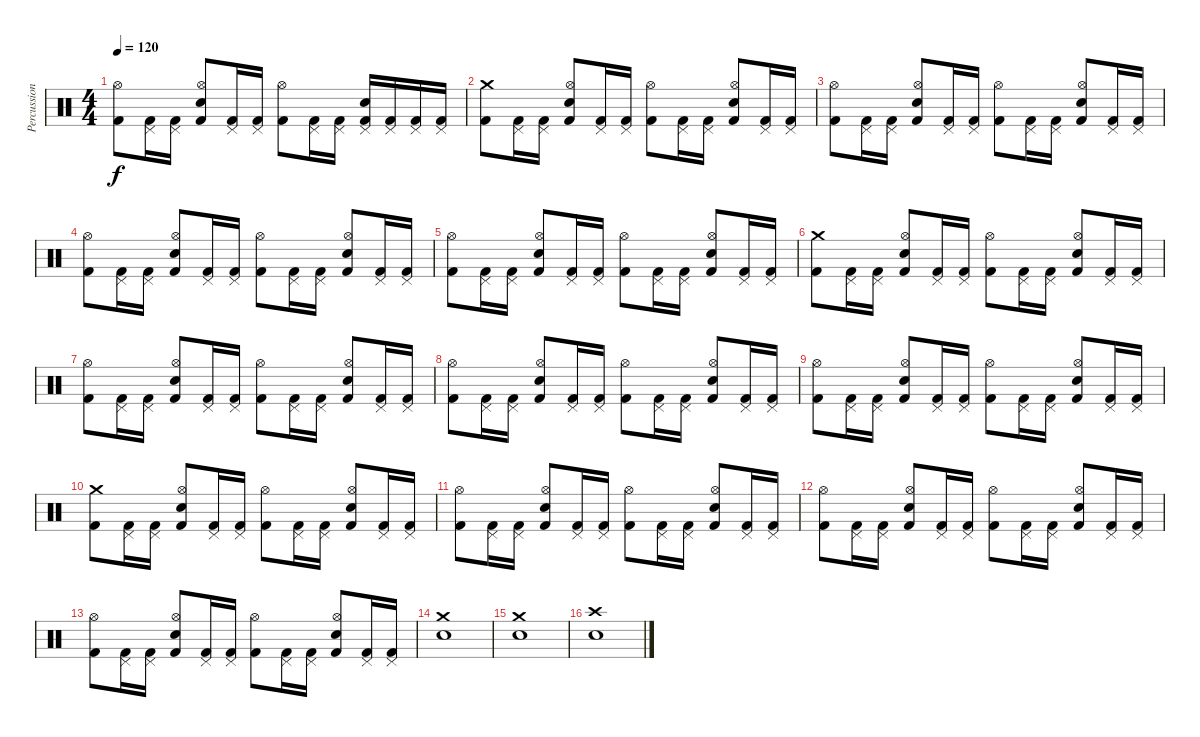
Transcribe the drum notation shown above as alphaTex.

\track ("Percussions" "Percussion") {instrument percussion}
\staff {score}
\articulation defaults
\ts (4 4)
\tempo 120
\clef neutral
\ks c
("Kick (hit) 2" "Hi-Hat (open)").8{dy f} ("Kick (hit) 2" "Pedal Hi-Hat (hit)").16 ("Kick (hit) 2" "Pedal Hi-Hat (hit)").16 ("Kick (hit) 2" "Electric Snare (hit)" "Hi-Hat (open)").8 ("Kick (hit) 2" "Pedal Hi-Hat (hit)").16 ("Kick (hit) 2" "Pedal Hi-Hat (hit)").16 ("Kick (hit) 2" "Hi-Hat (open)").8 ("Kick (hit) 2" "Pedal Hi-Hat (hit)").16 ("Kick (hit) 2" "Pedal Hi-Hat (hit)").16 ("Kick (hit) 2" "Electric Snare (hit)" "Pedal Hi-Hat (hit)").16 ("Kick (hit) 2" "Pedal Hi-Hat (hit)").16 ("Kick (hit) 2" "Pedal Hi-Hat (hit)").16 ("Kick (hit) 2" "Pedal Hi-Hat (hit)").16 |
("Kick (hit) 2" "Crash medium (hit)").8 ("Kick (hit) 2" "Pedal Hi-Hat (hit)").16 ("Kick (hit) 2" "Pedal Hi-Hat (hit)").16 ("Kick (hit) 2" "Electric Snare (hit)" "Hi-Hat (open)").8 ("Kick (hit) 2" "Pedal Hi-Hat (hit)").16 ("Kick (hit) 2" "Pedal Hi-Hat (hit)").16 ("Kick (hit) 2" "Hi-Hat (open)").8 ("Kick (hit) 2" "Pedal Hi-Hat (hit)").16 ("Kick (hit) 2" "Pedal Hi-Hat (hit)").16 ("Kick (hit) 2" "Electric Snare (hit)" "Hi-Hat (open)").8 ("Kick (hit) 2" "Pedal Hi-Hat (hit)").16 ("Kick (hit) 2" "Pedal Hi-Hat (hit)").16 |
("Kick (hit) 2" "Hi-Hat (open)").8 ("Kick (hit) 2" "Pedal Hi-Hat (hit)").16 ("Kick (hit) 2" "Pedal Hi-Hat (hit)").16 ("Kick (hit) 2" "Electric Snare (hit)" "Hi-Hat (open)").8 ("Kick (hit) 2" "Pedal Hi-Hat (hit)").16 ("Kick (hit) 2" "Pedal Hi-Hat (hit)").16 ("Kick (hit) 2" "Hi-Hat (open)").8 ("Kick (hit) 2" "Pedal Hi-Hat (hit)").16 ("Kick (hit) 2" "Pedal Hi-Hat (hit)").16 ("Kick (hit) 2" "Electric Snare (hit)" "Hi-Hat (open)").8 ("Kick (hit) 2" "Pedal Hi-Hat (hit)").16 ("Kick (hit) 2" "Pedal Hi-Hat (hit)").16 |
("Kick (hit) 2" "Hi-Hat (open)").8 ("Kick (hit) 2" "Pedal Hi-Hat (hit)").16 ("Kick (hit) 2" "Pedal Hi-Hat (hit)").16 ("Kick (hit) 2" "Electric Snare (hit)" "Hi-Hat (open)").8 ("Kick (hit) 2" "Pedal Hi-Hat (hit)").16 ("Kick (hit) 2" "Pedal Hi-Hat (hit)").16 ("Kick (hit) 2" "Hi-Hat (open)").8 ("Kick (hit) 2" "Pedal Hi-Hat (hit)").16 ("Kick (hit) 2" "Pedal Hi-Hat (hit)").16 ("Kick (hit) 2" "Electric Snare (hit)" "Hi-Hat (open)").8 ("Kick (hit) 2" "Pedal Hi-Hat (hit)").16 ("Kick (hit) 2" "Pedal Hi-Hat (hit)").16 |
("Kick (hit) 2" "Hi-Hat (open)").8 ("Kick (hit) 2" "Pedal Hi-Hat (hit)").16 ("Kick (hit) 2" "Pedal Hi-Hat (hit)").16 ("Kick (hit) 2" "Electric Snare (hit)" "Hi-Hat (open)").8 ("Kick (hit) 2" "Pedal Hi-Hat (hit)").16 ("Kick (hit) 2" "Pedal Hi-Hat (hit)").16 ("Kick (hit) 2" "Hi-Hat (open)").8 ("Kick (hit) 2" "Pedal Hi-Hat (hit)").16 ("Kick (hit) 2" "Pedal Hi-Hat (hit)").16 ("Kick (hit) 2" "Electric Snare (hit)" "Hi-Hat (open)").8 ("Kick (hit) 2" "Pedal Hi-Hat (hit)").16 ("Kick (hit) 2" "Pedal Hi-Hat (hit)").16 |
("Kick (hit) 2" "Crash medium (hit)").8 ("Kick (hit) 2" "Pedal Hi-Hat (hit)").16 ("Kick (hit) 2" "Pedal Hi-Hat (hit)").16 ("Kick (hit) 2" "Electric Snare (hit)" "Hi-Hat (open)").8 ("Kick (hit) 2" "Pedal Hi-Hat (hit)").16 ("Kick (hit) 2" "Pedal Hi-Hat (hit)").16 ("Kick (hit) 2" "Hi-Hat (open)").8 ("Kick (hit) 2" "Pedal Hi-Hat (hit)").16 ("Kick (hit) 2" "Pedal Hi-Hat (hit)").16 ("Kick (hit) 2" "Electric Snare (hit)" "Hi-Hat (open)").8 ("Kick (hit) 2" "Pedal Hi-Hat (hit)").16 ("Kick (hit) 2" "Pedal Hi-Hat (hit)").16 |
("Kick (hit) 2" "Hi-Hat (open)").8 ("Kick (hit) 2" "Pedal Hi-Hat (hit)").16 ("Kick (hit) 2" "Pedal Hi-Hat (hit)").16 ("Kick (hit) 2" "Electric Snare (hit)" "Hi-Hat (open)").8 ("Kick (hit) 2" "Pedal Hi-Hat (hit)").16 ("Kick (hit) 2" "Pedal Hi-Hat (hit)").16 ("Kick (hit) 2" "Hi-Hat (open)").8 ("Kick (hit) 2" "Pedal Hi-Hat (hit)").16 ("Kick (hit) 2" "Pedal Hi-Hat (hit)").16 ("Kick (hit) 2" "Electric Snare (hit)" "Hi-Hat (open)").8 ("Kick (hit) 2" "Pedal Hi-Hat (hit)").16 ("Kick (hit) 2" "Pedal Hi-Hat (hit)").16 |
("Kick (hit) 2" "Hi-Hat (open)").8 ("Kick (hit) 2" "Pedal Hi-Hat (hit)").16 ("Kick (hit) 2" "Pedal Hi-Hat (hit)").16 ("Kick (hit) 2" "Electric Snare (hit)" "Hi-Hat (open)").8 ("Kick (hit) 2" "Pedal Hi-Hat (hit)").16 ("Kick (hit) 2" "Pedal Hi-Hat (hit)").16 ("Kick (hit) 2" "Hi-Hat (open)").8 ("Kick (hit) 2" "Pedal Hi-Hat (hit)").16 ("Kick (hit) 2" "Pedal Hi-Hat (hit)").16 ("Kick (hit) 2" "Electric Snare (hit)" "Hi-Hat (open)").8 ("Kick (hit) 2" "Pedal Hi-Hat (hit)").16 ("Kick (hit) 2" "Pedal Hi-Hat (hit)").16 |
("Kick (hit) 2" "Hi-Hat (open)").8 ("Kick (hit) 2" "Pedal Hi-Hat (hit)").16 ("Kick (hit) 2" "Pedal Hi-Hat (hit)").16 ("Kick (hit) 2" "Electric Snare (hit)" "Hi-Hat (open)").8 ("Kick (hit) 2" "Pedal Hi-Hat (hit)").16 ("Kick (hit) 2" "Pedal Hi-Hat (hit)").16 ("Kick (hit) 2" "Hi-Hat (open)").8 ("Kick (hit) 2" "Pedal Hi-Hat (hit)").16 ("Kick (hit) 2" "Pedal Hi-Hat (hit)").16 ("Kick (hit) 2" "Electric Snare (hit)" "Hi-Hat (open)").8 ("Kick (hit) 2" "Pedal Hi-Hat (hit)").16 ("Kick (hit) 2" "Pedal Hi-Hat (hit)").16 |
("Kick (hit) 2" "Crash medium (hit)").8 ("Kick (hit) 2" "Pedal Hi-Hat (hit)").16 ("Kick (hit) 2" "Pedal Hi-Hat (hit)").16 ("Kick (hit) 2" "Electric Snare (hit)" "Hi-Hat (open)").8 ("Kick (hit) 2" "Pedal Hi-Hat (hit)").16 ("Kick (hit) 2" "Pedal Hi-Hat (hit)").16 ("Kick (hit) 2" "Hi-Hat (open)").8 ("Kick (hit) 2" "Pedal Hi-Hat (hit)").16 ("Kick (hit) 2" "Pedal Hi-Hat (hit)").16 ("Kick (hit) 2" "Electric Snare (hit)" "Hi-Hat (open)").8 ("Kick (hit) 2" "Pedal Hi-Hat (hit)").16 ("Kick (hit) 2" "Pedal Hi-Hat (hit)").16 |
("Kick (hit) 2" "Hi-Hat (open)").8 ("Kick (hit) 2" "Pedal Hi-Hat (hit)").16 ("Kick (hit) 2" "Pedal Hi-Hat (hit)").16 ("Kick (hit) 2" "Electric Snare (hit)" "Hi-Hat (open)").8 ("Kick (hit) 2" "Pedal Hi-Hat (hit)").16 ("Kick (hit) 2" "Pedal Hi-Hat (hit)").16 ("Kick (hit) 2" "Hi-Hat (open)").8 ("Kick (hit) 2" "Pedal Hi-Hat (hit)").16 ("Kick (hit) 2" "Pedal Hi-Hat (hit)").16 ("Kick (hit) 2" "Electric Snare (hit)" "Hi-Hat (open)").8 ("Kick (hit) 2" "Pedal Hi-Hat (hit)").16 ("Kick (hit) 2" "Pedal Hi-Hat (hit)").16 |
("Kick (hit) 2" "Hi-Hat (open)").8 ("Kick (hit) 2" "Pedal Hi-Hat (hit)").16 ("Kick (hit) 2" "Pedal Hi-Hat (hit)").16 ("Kick (hit) 2" "Electric Snare (hit)" "Hi-Hat (open)").8 ("Kick (hit) 2" "Pedal Hi-Hat (hit)").16 ("Kick (hit) 2" "Pedal Hi-Hat (hit)").16 ("Kick (hit) 2" "Hi-Hat (open)").8 ("Kick (hit) 2" "Pedal Hi-Hat (hit)").16 ("Kick (hit) 2" "Pedal Hi-Hat (hit)").16 ("Kick (hit) 2" "Electric Snare (hit)" "Hi-Hat (open)").8 ("Kick (hit) 2" "Pedal Hi-Hat (hit)").16 ("Kick (hit) 2" "Pedal Hi-Hat (hit)").16 |
("Kick (hit) 2" "Hi-Hat (open)").8 ("Kick (hit) 2" "Pedal Hi-Hat (hit)").16 ("Kick (hit) 2" "Pedal Hi-Hat (hit)").16 ("Kick (hit) 2" "Electric Snare (hit)" "Hi-Hat (open)").8 ("Kick (hit) 2" "Pedal Hi-Hat (hit)").16 ("Kick (hit) 2" "Pedal Hi-Hat (hit)").16 ("Kick (hit) 2" "Hi-Hat (open)").8 ("Kick (hit) 2" "Pedal Hi-Hat (hit)").16 ("Kick (hit) 2" "Pedal Hi-Hat (hit)").16 ("Kick (hit) 2" "Electric Snare (hit)" "Hi-Hat (open)").8 ("Kick (hit) 2" "Pedal Hi-Hat (hit)").16 ("Kick (hit) 2" "Pedal Hi-Hat (hit)").16 |
("Crash medium (hit)" "Electric Snare (hit)").1 |
("Crash medium (hit)" "Electric Snare (hit)").1 |
("Crash high (hit)" "Electric Snare (hit)").1
